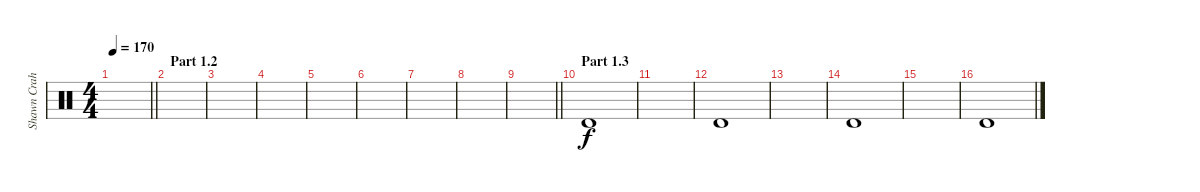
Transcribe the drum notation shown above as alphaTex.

\track ("Shawn Crahan" "Shawn Crah") {instrument percussion}
\staff {score}
\articulation defaults
\ts (4 4)
\tempo 170
\clef neutral
\barLineRight lightlight
\ks c
|
\section ("" "Part 1.2")
|
|
|
|
|
|
|
\barLineRight lightlight
|
\section ("" "Part 1.3")
"Timbale high (hit)".1 |
|
"Timbale high (hit)".1 |
|
"Timbale high (hit)".1 |
|
"Timbale high (hit)".1
